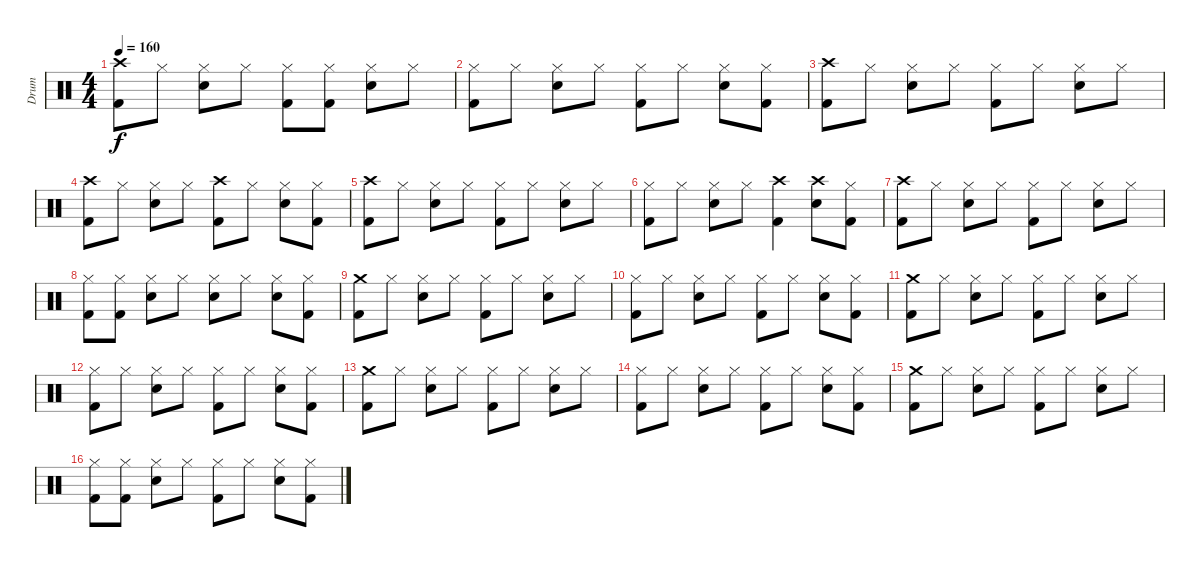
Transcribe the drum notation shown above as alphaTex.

\track ("Drum" "Drum") {instrument percussion}
\staff {score}
\articulation defaults
\ts (4 4)
\tempo 160
\clef neutral
\ks c
("Crash high (hit)" "Kick (hit) 2").8{dy f} "Hi-Hat (closed)".8 ("Hi-Hat (closed)" "Snare (hit) 2").8 "Hi-Hat (closed)".8 ("Hi-Hat (closed)" "Kick (hit) 2").8 ("Hi-Hat (closed)" "Kick (hit) 2").8 ("Hi-Hat (closed)" "Snare (hit) 2").8 "Hi-Hat (closed)".8 |
("Hi-Hat (closed)" "Kick (hit) 2").8 "Hi-Hat (closed)".8 ("Hi-Hat (closed)" "Snare (hit) 2").8 "Hi-Hat (closed)".8 ("Hi-Hat (closed)" "Kick (hit) 2").8 "Hi-Hat (closed)".8 ("Hi-Hat (closed)" "Snare (hit) 2").8 ("Hi-Hat (closed)" "Kick (hit) 2").8 |
("Crash high (hit)" "Kick (hit) 2").8 "Hi-Hat (closed)".8 ("Hi-Hat (closed)" "Snare (hit) 2").8 "Hi-Hat (closed)".8 ("Hi-Hat (closed)" "Kick (hit) 2").8 "Hi-Hat (closed)".8 ("Hi-Hat (closed)" "Snare (hit) 2").8 "Hi-Hat (closed)".8 |
("Crash high (hit)" "Kick (hit) 2").8 "Hi-Hat (closed)".8 ("Hi-Hat (closed)" "Snare (hit) 2").8 "Hi-Hat (closed)".8 ("Crash high (hit)" "Kick (hit) 2").8 "Hi-Hat (closed)".8 ("Hi-Hat (closed)" "Snare (hit) 2").8 ("Hi-Hat (closed)" "Kick (hit) 2").8 |
("Crash high (hit)" "Kick (hit) 2").8 "Hi-Hat (closed)".8 ("Hi-Hat (closed)" "Snare (hit) 2").8 "Hi-Hat (closed)".8 ("Hi-Hat (closed)" "Kick (hit) 2").8 "Hi-Hat (closed)".8 ("Hi-Hat (closed)" "Snare (hit) 2").8 "Hi-Hat (closed)".8 |
("Hi-Hat (closed)" "Kick (hit) 2").8 "Hi-Hat (closed)".8 ("Hi-Hat (closed)" "Snare (hit) 2").8 "Hi-Hat (closed)".8 ("Crash high (hit)" "Kick (hit) 2").4 ("Crash high (hit)" "Snare (hit) 2").8 ("Hi-Hat (closed)" "Kick (hit) 2").8 |
("Crash high (hit)" "Kick (hit) 2").8 "Hi-Hat (closed)".8 ("Hi-Hat (closed)" "Snare (hit) 2").8 "Hi-Hat (closed)".8 ("Hi-Hat (closed)" "Kick (hit) 2").8 "Hi-Hat (closed)".8 ("Hi-Hat (closed)" "Snare (hit) 2").8 "Hi-Hat (closed)".8 |
("Hi-Hat (closed)" "Kick (hit) 2").8 ("Hi-Hat (closed)" "Kick (hit) 2").8 ("Hi-Hat (closed)" "Snare (hit) 2").8 "Hi-Hat (closed)".8 ("Hi-Hat (closed)" "Snare (hit) 2").8 "Hi-Hat (closed)".8 ("Hi-Hat (closed)" "Snare (hit) 2").8 ("Hi-Hat (closed)" "Kick (hit) 2").8 |
("Crash medium (hit)" "Kick (hit) 2").8 "Hi-Hat (closed)".8 ("Hi-Hat (closed)" "Snare (hit) 2").8 "Hi-Hat (closed)".8 ("Hi-Hat (closed)" "Kick (hit) 2").8 "Hi-Hat (closed)".8 ("Hi-Hat (closed)" "Snare (hit) 2").8 "Hi-Hat (closed)".8 |
("Hi-Hat (closed)" "Kick (hit) 2").8 "Hi-Hat (closed)".8 ("Hi-Hat (closed)" "Snare (hit) 2").8 "Hi-Hat (closed)".8 ("Hi-Hat (closed)" "Kick (hit) 2").8 "Hi-Hat (closed)".8 ("Hi-Hat (closed)" "Snare (hit) 2").8 ("Hi-Hat (closed)" "Kick (hit) 2").8 |
("Crash medium (hit)" "Kick (hit) 2").8 "Hi-Hat (closed)".8 ("Hi-Hat (closed)" "Snare (hit) 2").8 "Hi-Hat (closed)".8 ("Hi-Hat (closed)" "Kick (hit) 2").8 "Hi-Hat (closed)".8 ("Hi-Hat (closed)" "Snare (hit) 2").8 "Hi-Hat (closed)".8 |
("Hi-Hat (closed)" "Kick (hit) 2").8 "Hi-Hat (closed)".8 ("Hi-Hat (closed)" "Snare (hit) 2").8 "Hi-Hat (closed)".8 ("Hi-Hat (closed)" "Kick (hit) 2").8 "Hi-Hat (closed)".8 ("Hi-Hat (closed)" "Snare (hit) 2").8 ("Hi-Hat (closed)" "Kick (hit) 2").8 |
("Crash medium (hit)" "Kick (hit) 2").8 "Hi-Hat (closed)".8 ("Hi-Hat (closed)" "Snare (hit) 2").8 "Hi-Hat (closed)".8 ("Hi-Hat (closed)" "Kick (hit) 2").8 "Hi-Hat (closed)".8 ("Hi-Hat (closed)" "Snare (hit) 2").8 "Hi-Hat (closed)".8 |
("Hi-Hat (closed)" "Kick (hit) 2").8 "Hi-Hat (closed)".8 ("Hi-Hat (closed)" "Snare (hit) 2").8 "Hi-Hat (closed)".8 ("Hi-Hat (closed)" "Kick (hit) 2").8 "Hi-Hat (closed)".8 ("Hi-Hat (closed)" "Snare (hit) 2").8 ("Hi-Hat (closed)" "Kick (hit) 2").8 |
("Crash medium (hit)" "Kick (hit) 2").8 "Hi-Hat (closed)".8 ("Hi-Hat (closed)" "Snare (hit) 2").8 "Hi-Hat (closed)".8 ("Hi-Hat (closed)" "Kick (hit) 2").8 "Hi-Hat (closed)".8 ("Hi-Hat (closed)" "Snare (hit) 2").8 "Hi-Hat (closed)".8 |
("Hi-Hat (closed)" "Kick (hit) 2").8 ("Hi-Hat (closed)" "Kick (hit) 2").8 ("Hi-Hat (closed)" "Snare (hit) 2").8 "Hi-Hat (closed)".8 ("Hi-Hat (closed)" "Kick (hit) 2").8 "Hi-Hat (closed)".8 ("Hi-Hat (closed)" "Snare (hit) 2").8 ("Hi-Hat (closed)" "Kick (hit) 2").8
